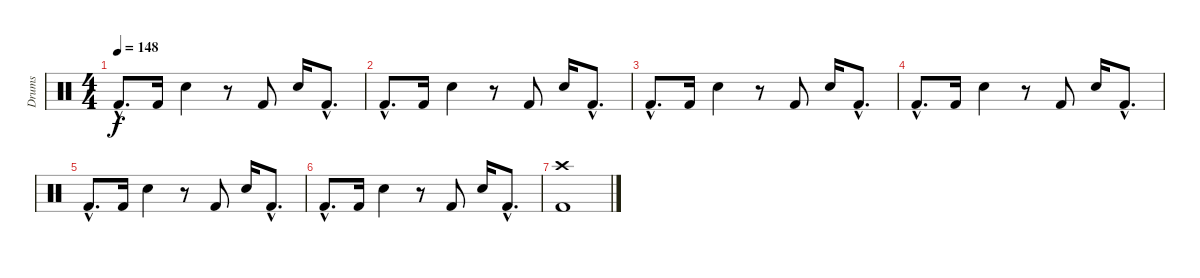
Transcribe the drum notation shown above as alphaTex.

\track ("Drums" "Drums") {instrument percussion}
\staff {score}
\articulation defaults
\ts (4 4)
\tempo 148
\clef neutral
\ks c "Kick (hit) 2"{hac}.8{d dy f} "Kick (hit) 2".16 "Electric Snare (hit)".4
r.8 "Kick (hit) 2".8 "Electric Snare (hit)".16 "Kick (hit) 2"{hac}.8{d} |
"Kick (hit) 2"{hac}.8{d} "Kick (hit) 2".16 "Electric Snare (hit)".4 r.8 "Kick (hit) 2".8 "Electric Snare (hit)".16 "Kick (hit) 2"{hac}.8{d} |
"Kick (hit) 2"{hac}.8{d} "Kick (hit) 2".16 "Electric Snare (hit)".4 r.8 "Kick (hit) 2".8 "Electric Snare (hit)".16 "Kick (hit) 2"{hac}.8{d} |
"Kick (hit) 2"{hac}.8{d} "Kick (hit) 2".16 "Electric Snare (hit)".4 r.8 "Kick (hit) 2".8 "Electric Snare (hit)".16 "Kick (hit) 2"{hac}.8{d} |
"Kick (hit) 2"{hac}.8{d} "Kick (hit) 2".16 "Electric Snare (hit)".4 r.8 "Kick (hit) 2".8 "Electric Snare (hit)".16 "Kick (hit) 2"{hac}.8{d} |
"Kick (hit) 2"{hac}.8{d} "Kick (hit) 2".16 "Electric Snare (hit)".4 r.8 "Kick (hit) 2".8 "Electric Snare (hit)".16 "Kick (hit) 2"{hac}.8{d} |
("Crash high (hit)" "Kick (hit) 2").1
